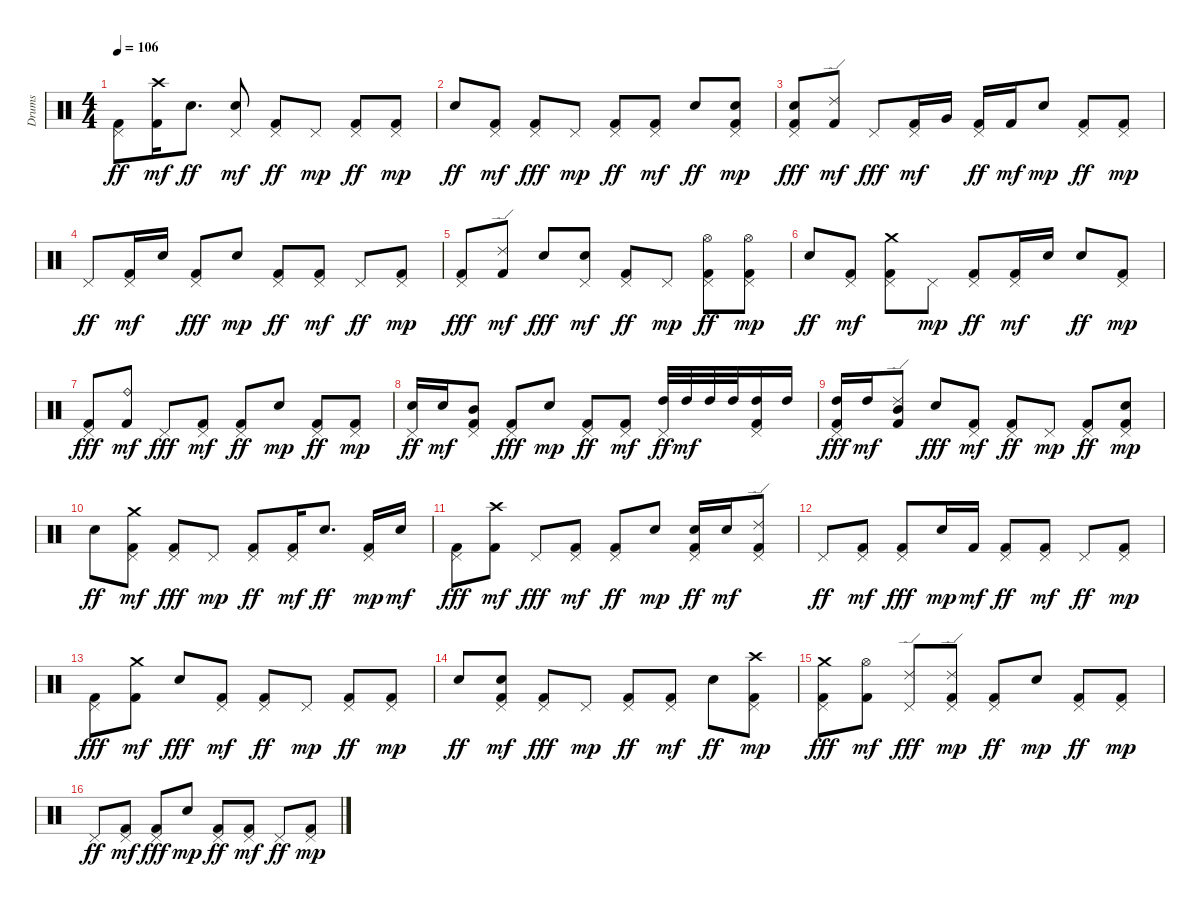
\track ("Drums" "Drums") {instrument percussion}
\staff {score}
\articulation defaults
\ts (4 4)
\tempo 106
\clef neutral
\ks c
("Pedal Hi-Hat (hit)" "Kick (hit) 2").8{dy ff} ("Crash high (hit)" "Kick (hit) 2").16{dy mf} "Electric Snare (hit)".8{d dy ff} ("Pedal Hi-Hat (hit)" "Electric Snare (hit)").8{dy mf} ("Pedal Hi-Hat (hit)" "Kick (hit) 2").8{dy ff} "Pedal Hi-Hat (hit)".8{dy mp} ("Pedal Hi-Hat (hit)" "Kick (hit) 2").8{dy ff} ("Pedal Hi-Hat (hit)" "Kick (hit) 2").8{dy mp} |
"Electric Snare (hit)".8{dy ff} ("Pedal Hi-Hat (hit)" "Kick (hit) 2").8{dy mf} ("Pedal Hi-Hat (hit)" "Kick (hit) 2").8{dy fff} "Pedal Hi-Hat (hit)".8{dy mp} ("Pedal Hi-Hat (hit)" "Kick (hit) 2").8{dy ff} ("Pedal Hi-Hat (hit)" "Kick (hit) 2").8{dy mf} "Electric Snare (hit)".8{dy ff} ("Electric Snare (hit)" "Pedal Hi-Hat (hit)" "Kick (hit) 2").8{dy mp} |
("Electric Snare (hit)" "Pedal Hi-Hat (hit)" "Kick (hit) 2").8{dy fff} ("Ride (edge) 2" "Kick (hit) 2").8{dy mf} "Pedal Hi-Hat (hit)".8{dy fff} ("Pedal Hi-Hat (hit)" "Kick (hit) 2").16{dy mf} "Very Low Tom (hit)".16 ("Pedal Hi-Hat (hit)" "Kick (hit) 2").16{dy ff} "Kick (hit) 2".16{dy mf} "Electric Snare (hit)".8{dy mp} ("Pedal Hi-Hat (hit)" "Kick (hit) 2").8{dy ff} ("Pedal Hi-Hat (hit)" "Kick (hit) 2").8{dy mp} |
"Pedal Hi-Hat (hit)".8{dy ff} ("Pedal Hi-Hat (hit)" "Kick (hit) 2").16{dy mf} "Electric Snare (hit)".16 ("Pedal Hi-Hat (hit)" "Kick (hit) 2").8{dy fff} "Electric Snare (hit)".8{dy mp} ("Pedal Hi-Hat (hit)" "Kick (hit) 2").8{dy ff} ("Pedal Hi-Hat (hit)" "Kick (hit) 2").8{dy mf} "Pedal Hi-Hat (hit)".8{dy ff} ("Pedal Hi-Hat (hit)" "Kick (hit) 2").8{dy mp} |
("Pedal Hi-Hat (hit)" "Kick (hit) 2").8{dy fff} ("Ride (edge) 2" "Kick (hit) 2").8{dy mf} "Electric Snare (hit)".8{dy fff} ("Pedal Hi-Hat (hit)" "Snare (hit) 2").8{dy mf} ("Pedal Hi-Hat (hit)" "Kick (hit) 2").8{dy ff} "Pedal Hi-Hat (hit)".8{dy mp} ("Hi-Hat (open)" "Pedal Hi-Hat (hit)" "Kick (hit) 2").8{dy ff} ("Hi-Hat (open)" "Pedal Hi-Hat (hit)" "Kick (hit) 2").8{dy mp} |
"Electric Snare (hit)".8{dy ff} ("Pedal Hi-Hat (hit)" "Kick (hit) 2").8{dy mf} ("Pedal Hi-Hat (hit)" "Kick (hit) 2" "Crash medium (hit)").8 "Pedal Hi-Hat (hit)".8{dy mp} ("Pedal Hi-Hat (hit)" "Kick (hit) 2").8{dy ff} ("Pedal Hi-Hat (hit)" "Kick (hit) 2").16{dy mf} "Electric Snare (hit)".16 "Electric Snare (hit)".8{dy ff} ("Pedal Hi-Hat (hit)" "Kick (hit) 2").8{dy mp} |
("Pedal Hi-Hat (hit)" "Kick (hit) 2").8{dy fff} ("Ride (bell)" "Kick (hit) 2").8{dy mf} "Pedal Hi-Hat (hit)".8{dy fff} ("Pedal Hi-Hat (hit)" "Kick (hit) 2").8{dy mf} ("Pedal Hi-Hat (hit)" "Kick (hit) 2").8{dy ff} "Electric Snare (hit)".8{dy mp} ("Pedal Hi-Hat (hit)" "Kick (hit) 2").8{dy ff} ("Pedal Hi-Hat (hit)" "Kick (hit) 2").8{dy mp} |
("Electric Snare (hit)" "Pedal Hi-Hat (hit)").16{dy ff} "Electric Snare (hit)".16{dy mf} ("Mid Tom (hit)" "Pedal Hi-Hat (hit)" "Kick (hit) 2").8 ("Pedal Hi-Hat (hit)" "Kick (hit) 2").8{dy fff} "Electric Snare (hit)".8{dy mp} ("Pedal Hi-Hat (hit)" "Kick (hit) 2").8{dy ff} ("Pedal Hi-Hat (hit)" "Kick (hit) 2").8{dy mf} ("High Tom (hit)" "Pedal Hi-Hat (hit)").32{dy ff} "High Tom (hit)".32{dy mf} "High Tom (hit)".32 "High Tom (hit)".32 ("Pedal Hi-Hat (hit)" "Kick (hit) 2" "High Tom (hit)").16 "High Tom (hit)".16 |
("High Tom (hit)" "Pedal Hi-Hat (hit)" "Kick (hit) 2").16{dy fff} "High Tom (hit)".16{dy mf} ("Kick (hit) 2" "Mid Tom (hit)" "Ride (edge) 2").8 "Electric Snare (hit)".8{dy fff} ("Pedal Hi-Hat (hit)" "Kick (hit) 2").8{dy mf} ("Pedal Hi-Hat (hit)" "Kick (hit) 2").8{dy ff} "Pedal Hi-Hat (hit)".8{dy mp} ("Pedal Hi-Hat (hit)" "Kick (hit) 2").8{dy ff} ("Electric Snare (hit)" "Pedal Hi-Hat (hit)" "Kick (hit) 2").8{dy mp} |
"Electric Snare (hit)".8{dy ff} ("Kick (hit) 2" "Crash medium (hit)" "Pedal Hi-Hat (hit)").8{dy mf} ("Pedal Hi-Hat (hit)" "Kick (hit) 2").8{dy fff} "Pedal Hi-Hat (hit)".8{dy mp} ("Pedal Hi-Hat (hit)" "Kick (hit) 2").8{dy ff} ("Pedal Hi-Hat (hit)" "Kick (hit) 2").16{dy mf} "Electric Snare (hit)".8{d dy ff} ("Pedal Hi-Hat (hit)" "Kick (hit) 2").16{dy mp} "Electric Snare (hit)".16{dy mf} |
("Pedal Hi-Hat (hit)" "Kick (hit) 2").8{dy fff} ("Crash high (hit)" "Kick (hit) 2").8{dy mf} "Pedal Hi-Hat (hit)".8{dy fff} ("Pedal Hi-Hat (hit)" "Kick (hit) 2").8{dy mf} ("Pedal Hi-Hat (hit)" "Kick (hit) 2").8{dy ff} "Electric Snare (hit)".8{dy mp} ("Electric Snare (hit)" "Pedal Hi-Hat (hit)" "Kick (hit) 2").16{dy ff} "Snare (hit) 2".16{dy mf} ("Pedal Hi-Hat (hit)" "Kick (hit) 2" "Ride (edge) 2").8 |
"Pedal Hi-Hat (hit)".8{dy ff} ("Pedal Hi-Hat (hit)" "Kick (hit) 2").8{dy mf} ("Pedal Hi-Hat (hit)" "Kick (hit) 2").8{dy fff} "Electric Snare (hit)".16{dy mp} "Kick (hit) 2".16{dy mf} ("Pedal Hi-Hat (hit)" "Kick (hit) 2").8{dy ff} ("Pedal Hi-Hat (hit)" "Kick (hit) 2").8{dy mf} "Pedal Hi-Hat (hit)".8{dy ff} ("Pedal Hi-Hat (hit)" "Kick (hit) 2").8{dy mp} |
("Pedal Hi-Hat (hit)" "Kick (hit) 2").8{dy fff} ("Crash medium (hit)" "Kick (hit) 2").8{dy mf} "Electric Snare (hit)".8{dy fff} ("Pedal Hi-Hat (hit)" "Kick (hit) 2").8{dy mf} ("Pedal Hi-Hat (hit)" "Kick (hit) 2").8{dy ff} "Pedal Hi-Hat (hit)".8{dy mp} ("Pedal Hi-Hat (hit)" "Kick (hit) 2").8{dy ff} ("Pedal Hi-Hat (hit)" "Kick (hit) 2").8{dy mp} |
"Electric Snare (hit)".8{dy ff} ("Pedal Hi-Hat (hit)" "Kick (hit) 2" "Electric Snare (hit)").8{dy mf} ("Pedal Hi-Hat (hit)" "Kick (hit) 2").8{dy fff} "Pedal Hi-Hat (hit)".8{dy mp} ("Pedal Hi-Hat (hit)" "Kick (hit) 2").8{dy ff} ("Pedal Hi-Hat (hit)" "Kick (hit) 2").8{dy mf} "Electric Snare (hit)".8{dy ff} ("Crash high (hit)" "Pedal Hi-Hat (hit)" "Kick (hit) 2").8{dy mp} |
("Crash medium (hit)" "Pedal Hi-Hat (hit)" "Kick (hit) 2").8{dy fff} ("Hi-Hat (open)" "Kick (hit) 2").8{dy mf} ("Ride (edge) 2" "Pedal Hi-Hat (hit)").8{dy fff} ("Pedal Hi-Hat (hit)" "Kick (hit) 2" "Ride (edge) 2").8{dy mp} ("Pedal Hi-Hat (hit)" "Kick (hit) 2").8{dy ff} "Electric Snare (hit)".8{dy mp} ("Pedal Hi-Hat (hit)" "Kick (hit) 2").8{dy ff} ("Pedal Hi-Hat (hit)" "Kick (hit) 2").8{dy mp} |
"Pedal Hi-Hat (hit)".8{dy ff} ("Pedal Hi-Hat (hit)" "Kick (hit) 2").8{dy mf} ("Pedal Hi-Hat (hit)" "Kick (hit) 2").8{dy fff} "Electric Snare (hit)".8{dy mp} ("Pedal Hi-Hat (hit)" "Kick (hit) 2").8{dy ff} ("Pedal Hi-Hat (hit)" "Kick (hit) 2").8{dy mf} "Pedal Hi-Hat (hit)".8{dy ff} ("Pedal Hi-Hat (hit)" "Kick (hit) 2").8{dy mp}
